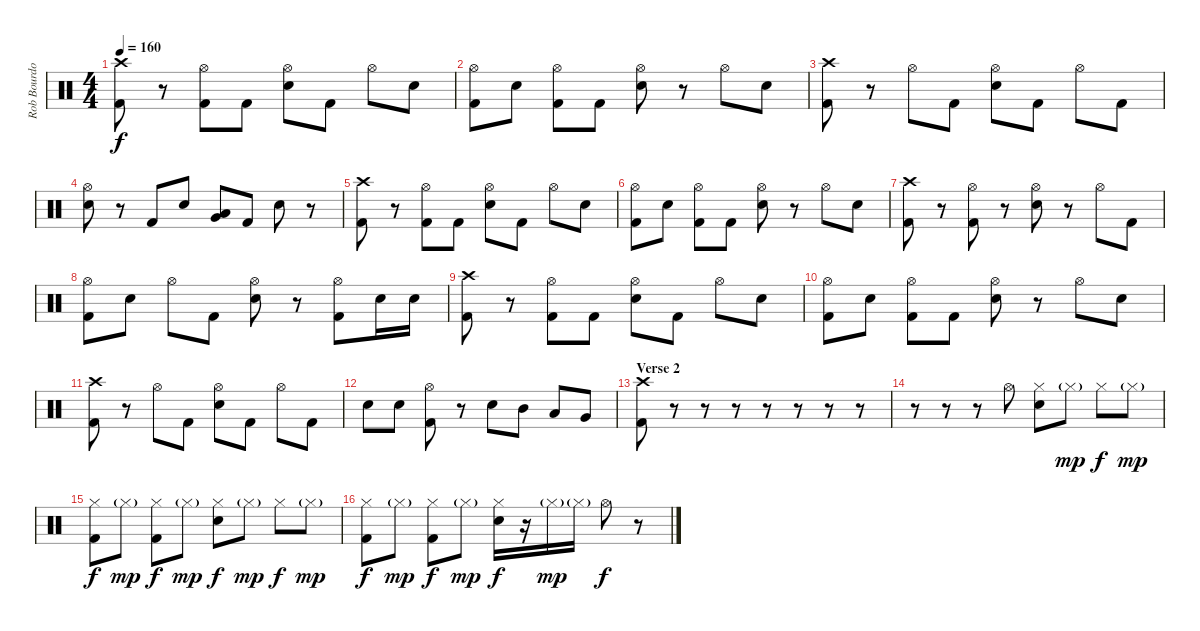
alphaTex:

\track ("Rob Bourdon (Drums)" "Rob Bourdo") {instrument percussion}
\staff {score}
\articulation defaults
\ts (4 4)
\tempo 160
\clef neutral
\ks c
("Crash high (hit)" "Kick (hit) 2").8{dy f} r.8 ("Hi-Hat (open)" "Kick (hit) 2").8 "Kick (hit) 2".8 ("Hi-Hat (open)" "Electric Snare (hit)").8 "Kick (hit) 2".8 "Hi-Hat (open)".8 "Electric Snare (hit)".8 |
("Hi-Hat (open)" "Kick (hit) 2").8 "Electric Snare (hit)".8 ("Hi-Hat (open)" "Kick (hit) 2").8 "Kick (hit) 2".8 ("Hi-Hat (open)" "Electric Snare (hit)").8 r.8 "Hi-Hat (open)".8 "Electric Snare (hit)".8 |
("Crash high (hit)" "Kick (hit) 2").8 r.8 "Hi-Hat (open)".8 "Kick (hit) 2".8 ("Hi-Hat (open)" "Electric Snare (hit)").8 "Kick (hit) 2".8 "Hi-Hat (open)".8 "Kick (hit) 2".8 |
("Hi-Hat (open)" "Electric Snare (hit)").8 r.8 "Kick (hit) 2".8 "Electric Snare (hit)".8 ("Low Tom (hit)" "Very Low Tom (hit)").8 "Kick (hit) 2".8 "Electric Snare (hit)".8 r.8 |
("Crash high (hit)" "Kick (hit) 2").8 r.8 ("Hi-Hat (open)" "Kick (hit) 2").8 "Kick (hit) 2".8 ("Hi-Hat (open)" "Electric Snare (hit)").8 "Kick (hit) 2".8 "Hi-Hat (open)".8 "Electric Snare (hit)".8 |
("Hi-Hat (open)" "Kick (hit) 2").8 "Electric Snare (hit)".8 ("Hi-Hat (open)" "Kick (hit) 2").8 "Kick (hit) 2".8 ("Hi-Hat (open)" "Electric Snare (hit)").8 r.8 "Hi-Hat (open)".8 "Electric Snare (hit)".8 |
("Crash high (hit)" "Kick (hit) 2").8 r.8 ("Hi-Hat (open)" "Kick (hit) 2").8 r.8 ("Hi-Hat (open)" "Electric Snare (hit)").8 r.8 "Hi-Hat (open)".8 "Kick (hit) 2".8 |
("Hi-Hat (open)" "Kick (hit) 2").8 "Electric Snare (hit)".8 "Hi-Hat (open)".8 "Kick (hit) 2".8 ("Hi-Hat (open)" "Electric Snare (hit)").8 r.8 ("Hi-Hat (open)" "Kick (hit) 2").8 "Electric Snare (hit)".16 "Electric Snare (hit)".16 |
("Crash high (hit)" "Kick (hit) 2").8 r.8 ("Hi-Hat (open)" "Kick (hit) 2").8 "Kick (hit) 2".8 ("Hi-Hat (open)" "Electric Snare (hit)").8 "Kick (hit) 2".8 "Hi-Hat (open)".8 "Electric Snare (hit)".8 |
("Hi-Hat (open)" "Kick (hit) 2").8 "Electric Snare (hit)".8 ("Hi-Hat (open)" "Kick (hit) 2").8 "Kick (hit) 2".8 ("Hi-Hat (open)" "Electric Snare (hit)").8 r.8 "Hi-Hat (open)".8 "Electric Snare (hit)".8 |
("Crash high (hit)" "Kick (hit) 2").8 r.8 "Hi-Hat (open)".8 "Kick (hit) 2".8 ("Hi-Hat (open)" "Electric Snare (hit)").8 "Kick (hit) 2".8 "Hi-Hat (open)".8 "Kick (hit) 2".8 |
"Electric Snare (hit)".8 "Electric Snare (hit)".8 ("Hi-Hat (open)" "Kick (hit) 2").8 r.8 "Electric Snare (hit)".8 "Mid Tom (hit)".8 "Low Tom (hit)".8 "Very Low Tom (hit)".8 |
\section ("" "Verse 2")
("Crash high (hit)" "Kick (hit) 2").8 r.8 r.8 r.8 r.8 r.8 r.8 r.8 |
r.8 r.8 r.8 "Hi-Hat (open)".8 ("Hi-Hat (closed)" "Electric Snare (hit)").8 "Hi-Hat (closed)"{g}.8{dy mp} "Hi-Hat (closed)".8{dy f} "Hi-Hat (closed)"{g}.8{dy mp} |
("Hi-Hat (closed)" "Kick (hit) 2").8{dy f} "Hi-Hat (closed)"{g}.8{dy mp} ("Hi-Hat (closed)" "Kick (hit) 2").8{dy f} "Hi-Hat (closed)"{g}.8{dy mp} ("Hi-Hat (closed)" "Electric Snare (hit)").8{dy f} "Hi-Hat (closed)"{g}.8{dy mp} "Hi-Hat (closed)".8{dy f} "Hi-Hat (closed)"{g}.8{dy mp} |
("Hi-Hat (closed)" "Kick (hit) 2").8{dy f} "Hi-Hat (closed)"{g}.8{dy mp} ("Hi-Hat (closed)" "Kick (hit) 2").8{dy f} "Hi-Hat (closed)"{g}.8{dy mp} ("Hi-Hat (closed)" "Electric Snare (hit)").16{dy f} r.16 "Hi-Hat (closed)"{g}.16{dy mp} "Hi-Hat (closed)"{g}.16 "Hi-Hat (open)".8{dy f} r.8
